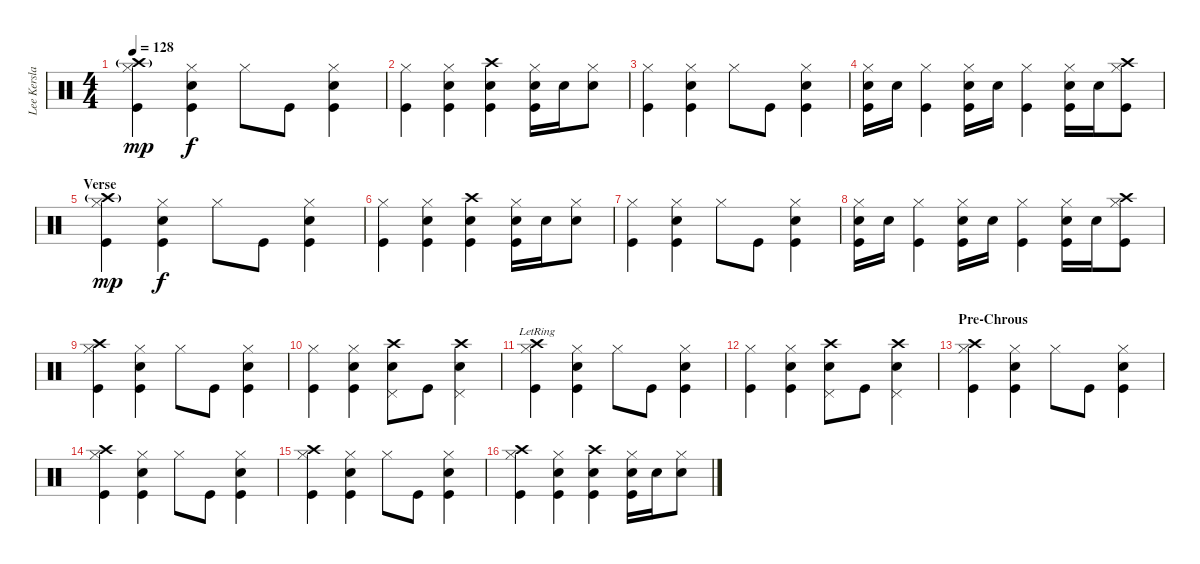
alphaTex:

\track ("Lee Kerslake (Drums)" "Lee Kersla") {instrument percussion}
\staff {score}
\articulation defaults
\ts (4 4)
\tempo 128
\clef neutral
\ks c
("Crash high (hit)"{g} "Hi-Hat (closed)" "Kick (hit)").4{dy mp} ("Hi-Hat (closed)" "Kick (hit)" "Electric Snare (hit)").4{dy f} "Hi-Hat (closed)".8 "Kick (hit)".8 ("Hi-Hat (closed)" "Electric Snare (hit)" "Kick (hit)").4 |
("Hi-Hat (closed)" "Kick (hit)").4 ("Hi-Hat (closed)" "Kick (hit)" "Electric Snare (hit)").4 ("Crash high (hit)" "Electric Snare (hit)" "Kick (hit)").4 ("Electric Snare (hit)" "Hi-Hat (closed)" "Kick (hit)").16 "Electric Snare (hit)".16 ("Electric Snare (hit)" "Hi-Hat (closed)").8 |
("Hi-Hat (closed)" "Kick (hit)").4 ("Hi-Hat (closed)" "Kick (hit)" "Electric Snare (hit)").4 "Hi-Hat (closed)".8 "Kick (hit)".8 ("Hi-Hat (closed)" "Electric Snare (hit)" "Kick (hit)").4 |
("Electric Snare (hit)" "Kick (hit)" "Hi-Hat (closed)").16 "Electric Snare (hit)".16 ("Kick (hit)" "Hi-Hat (closed)").4 ("Electric Snare (hit)" "Kick (hit)" "Hi-Hat (closed)").16 "Electric Snare (hit)".16 ("Kick (hit)" "Hi-Hat (closed)").4 ("Electric Snare (hit)" "Kick (hit)" "Hi-Hat (closed)").16 "Electric Snare (hit)".16 ("Crash high (hit)" "Kick (hit)" "Hi-Hat (closed)").8 |
\section ("" "Verse")
("Crash high (hit)"{g} "Hi-Hat (closed)" "Kick (hit)").4{dy mp} ("Hi-Hat (closed)" "Kick (hit)" "Electric Snare (hit)").4{dy f} "Hi-Hat (closed)".8 "Kick (hit)".8 ("Hi-Hat (closed)" "Electric Snare (hit)" "Kick (hit)").4 |
("Hi-Hat (closed)" "Kick (hit)").4 ("Hi-Hat (closed)" "Kick (hit)" "Electric Snare (hit)").4 ("Crash high (hit)" "Electric Snare (hit)" "Kick (hit)").4 ("Electric Snare (hit)" "Hi-Hat (closed)" "Kick (hit)").16 "Electric Snare (hit)".16 ("Electric Snare (hit)" "Hi-Hat (closed)").8 |
("Hi-Hat (closed)" "Kick (hit)").4 ("Hi-Hat (closed)" "Kick (hit)" "Electric Snare (hit)").4 "Hi-Hat (closed)".8 "Kick (hit)".8 ("Hi-Hat (closed)" "Electric Snare (hit)" "Kick (hit)").4 |
\section ("" "")
("Electric Snare (hit)" "Kick (hit)" "Hi-Hat (closed)").16 "Electric Snare (hit)".16 ("Kick (hit)" "Hi-Hat (closed)").4 ("Electric Snare (hit)" "Kick (hit)" "Hi-Hat (closed)").16 "Electric Snare (hit)".16 ("Kick (hit)" "Hi-Hat (closed)").4 ("Electric Snare (hit)" "Kick (hit)" "Hi-Hat (closed)").16 "Electric Snare (hit)".16 ("Crash high (hit)" "Kick (hit)" "Hi-Hat (closed)").8 |
("Crash high (hit)" "Hi-Hat (closed)" "Kick (hit)").4 ("Hi-Hat (closed)" "Kick (hit)" "Electric Snare (hit)").4 "Hi-Hat (closed)".8 "Kick (hit)".8 ("Hi-Hat (closed)" "Electric Snare (hit)" "Kick (hit)").4 |
("Hi-Hat (closed)" "Kick (hit)").4 ("Hi-Hat (closed)" "Kick (hit)" "Electric Snare (hit)").4 ("Crash high (hit)" "Electric Snare (hit)" "Pedal Hi-Hat (hit)").8 "Kick (hit)".8 ("Crash high (hit)" "Electric Snare (hit)" "Pedal Hi-Hat (hit)").4 |
("Crash high (hit)"{lr} "Hi-Hat (closed)" "Kick (hit)").4 ("Hi-Hat (closed)" "Kick (hit)" "Electric Snare (hit)").4 "Hi-Hat (closed)".8 "Kick (hit)".8 ("Hi-Hat (closed)" "Electric Snare (hit)" "Kick (hit)").4 |
("Hi-Hat (closed)" "Kick (hit)").4 ("Hi-Hat (closed)" "Kick (hit)" "Electric Snare (hit)").4 ("Crash high (hit)" "Electric Snare (hit)" "Pedal Hi-Hat (hit)").8 "Kick (hit)".8 ("Crash high (hit)" "Electric Snare (hit)" "Pedal Hi-Hat (hit)").4 |
\section ("" "Pre-Chrous")
("Crash high (hit)" "Hi-Hat (closed)" "Kick (hit)").4 ("Hi-Hat (closed)" "Kick (hit)" "Electric Snare (hit)").4 "Hi-Hat (closed)".8 "Kick (hit)".8 ("Hi-Hat (closed)" "Electric Snare (hit)" "Kick (hit)").4 |
("Crash high (hit)" "Hi-Hat (closed)" "Kick (hit)").4 ("Hi-Hat (closed)" "Kick (hit)" "Electric Snare (hit)").4 "Hi-Hat (closed)".8 "Kick (hit)".8 ("Hi-Hat (closed)" "Electric Snare (hit)" "Kick (hit)").4 |
("Crash high (hit)" "Hi-Hat (closed)" "Kick (hit)").4 ("Hi-Hat (closed)" "Kick (hit)" "Electric Snare (hit)").4 "Hi-Hat (closed)".8 "Kick (hit)".8 ("Hi-Hat (closed)" "Electric Snare (hit)" "Kick (hit)").4 |
("Crash high (hit)" "Hi-Hat (closed)" "Kick (hit)").4 ("Hi-Hat (closed)" "Kick (hit)" "Electric Snare (hit)").4 ("Crash high (hit)" "Electric Snare (hit)" "Kick (hit)").4 ("Electric Snare (hit)" "Hi-Hat (closed)" "Kick (hit)").16 "Electric Snare (hit)".16 ("Electric Snare (hit)" "Hi-Hat (closed)").8
